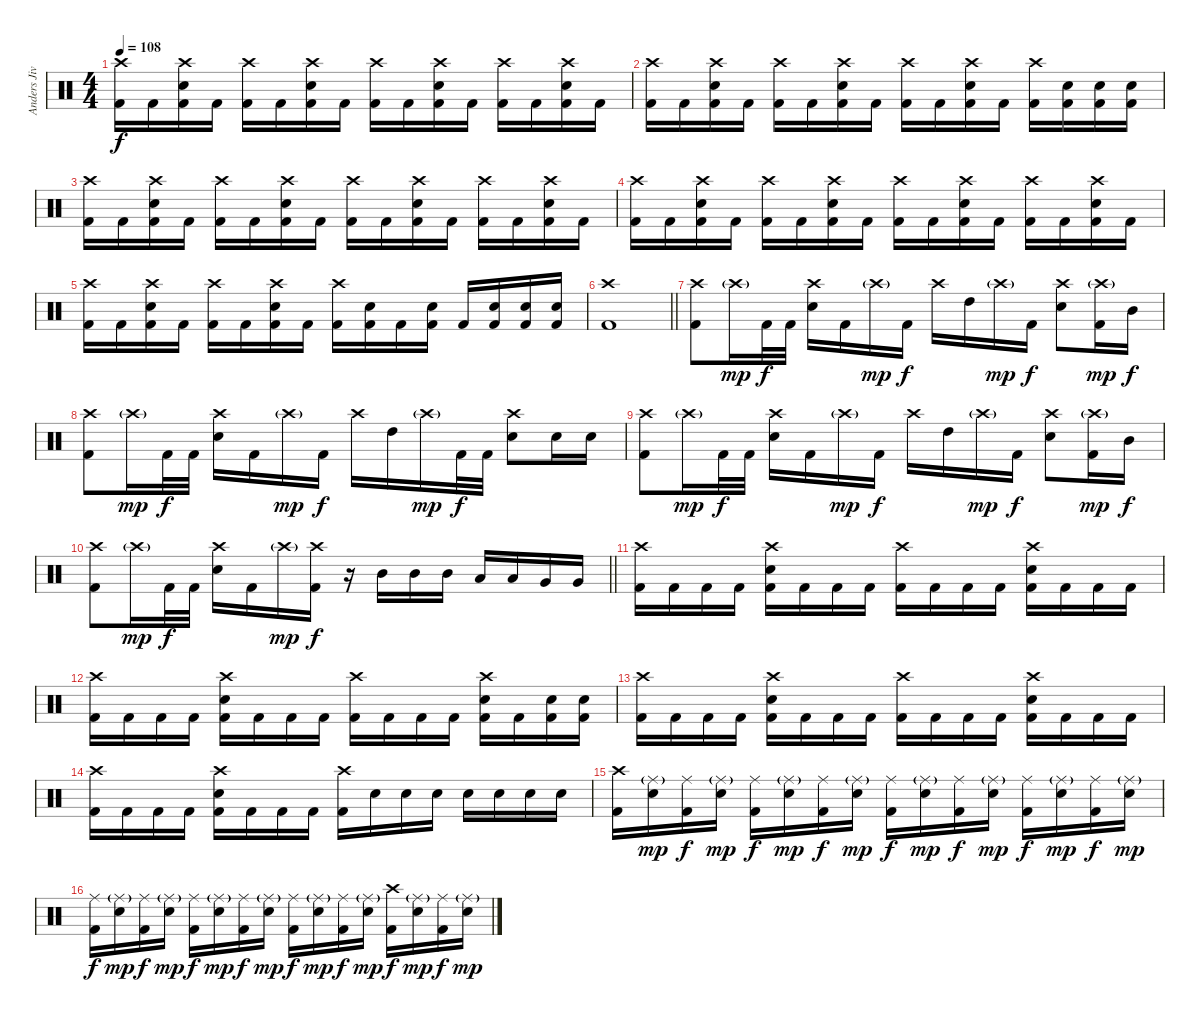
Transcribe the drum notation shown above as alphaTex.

\track ("Anders Jivarp" "Anders Jiv") {instrument percussion}
\staff {score}
\articulation defaults
\ts (4 4)
\tempo 108
\clef neutral
\ks c
("Crash high (hit)" "Kick (hit) 2").16{dy f} "Kick (hit) 2".16 ("Crash high (hit)" "Snare (hit) 2" "Kick (hit) 2").16 "Kick (hit) 2".16 ("Crash high (hit)" "Kick (hit) 2").16 "Kick (hit) 2".16 ("Crash high (hit)" "Snare (hit) 2" "Kick (hit) 2").16 "Kick (hit) 2".16 ("Crash high (hit)" "Kick (hit) 2").16 "Kick (hit) 2".16 ("Crash high (hit)" "Snare (hit) 2" "Kick (hit) 2").16 "Kick (hit) 2".16 ("Crash high (hit)" "Kick (hit) 2").16 "Kick (hit) 2".16 ("Crash high (hit)" "Snare (hit) 2" "Kick (hit) 2").16 "Kick (hit) 2".16 |
("Crash high (hit)" "Kick (hit) 2").16 "Kick (hit) 2".16 ("Crash high (hit)" "Snare (hit) 2" "Kick (hit) 2").16 "Kick (hit) 2".16 ("Crash high (hit)" "Kick (hit) 2").16 "Kick (hit) 2".16 ("Crash high (hit)" "Snare (hit) 2" "Kick (hit) 2").16 "Kick (hit) 2".16 ("Crash high (hit)" "Kick (hit) 2").16 "Kick (hit) 2".16 ("Crash high (hit)" "Snare (hit) 2" "Kick (hit) 2").16 "Kick (hit) 2".16 ("Crash high (hit)" "Kick (hit) 2").16 ("Snare (hit) 2" "Kick (hit) 2").16 ("Snare (hit) 2" "Kick (hit) 2").16 ("Snare (hit) 2" "Kick (hit) 2").16 |
("Crash high (hit)" "Kick (hit) 2").16 "Kick (hit) 2".16 ("Crash high (hit)" "Snare (hit) 2" "Kick (hit) 2").16 "Kick (hit) 2".16 ("Crash high (hit)" "Kick (hit) 2").16 "Kick (hit) 2".16 ("Crash high (hit)" "Snare (hit) 2" "Kick (hit) 2").16 "Kick (hit) 2".16 ("Crash high (hit)" "Kick (hit) 2").16 "Kick (hit) 2".16 ("Crash high (hit)" "Snare (hit) 2" "Kick (hit) 2").16 "Kick (hit) 2".16 ("Crash high (hit)" "Kick (hit) 2").16 "Kick (hit) 2".16 ("Crash high (hit)" "Snare (hit) 2" "Kick (hit) 2").16 "Kick (hit) 2".16 |
("Crash high (hit)" "Kick (hit) 2").16 "Kick (hit) 2".16 ("Crash high (hit)" "Snare (hit) 2" "Kick (hit) 2").16 "Kick (hit) 2".16 ("Crash high (hit)" "Kick (hit) 2").16 "Kick (hit) 2".16 ("Crash high (hit)" "Snare (hit) 2" "Kick (hit) 2").16 "Kick (hit) 2".16 ("Crash high (hit)" "Kick (hit) 2").16 "Kick (hit) 2".16 ("Crash high (hit)" "Snare (hit) 2" "Kick (hit) 2").16 "Kick (hit) 2".16 ("Crash high (hit)" "Kick (hit) 2").16 "Kick (hit) 2".16 ("Crash high (hit)" "Snare (hit) 2" "Kick (hit) 2").16 "Kick (hit) 2".16 |
("Crash high (hit)" "Kick (hit) 2").16 "Kick (hit) 2".16 ("Crash high (hit)" "Snare (hit) 2" "Kick (hit) 2").16 "Kick (hit) 2".16 ("Crash high (hit)" "Kick (hit) 2").16 "Kick (hit) 2".16 ("Crash high (hit)" "Snare (hit) 2" "Kick (hit) 2").16 "Kick (hit) 2".16 ("Crash high (hit)" "Kick (hit) 2").16 ("Snare (hit) 2" "Kick (hit) 2").16 "Kick (hit) 2".16 ("Snare (hit) 2" "Kick (hit) 2").16 "Kick (hit) 2".16 ("Snare (hit) 2" "Kick (hit) 2").16 ("Snare (hit) 2" "Kick (hit) 2").16 ("Snare (hit) 2" "Kick (hit) 2").16 |
\barLineRight lightlight
("Crash high (hit)" "Kick (hit) 2").1 |
\section ("" "")
("Crash high (hit)" "Kick (hit) 2").8 "Crash high (hit)"{g}.16{dy mp} "Kick (hit) 2".32{dy f} "Kick (hit) 2".32 ("Crash high (hit)" "Snare (hit) 2").16 "Kick (hit) 2".16 "Crash high (hit)"{g}.16{dy mp} "Kick (hit) 2".16{dy f} "Crash high (hit)".16 "High Tom (hit)".16 "Crash high (hit)"{g}.16{dy mp} "Kick (hit) 2".16{dy f} ("Crash high (hit)" "Snare (hit) 2").8 ("Crash high (hit)"{g} "Kick (hit) 2").16{dy mp} "Mid Tom (hit)".16{dy f} |
("Crash high (hit)" "Kick (hit) 2").8 "Crash high (hit)"{g}.16{dy mp} "Kick (hit) 2".32{dy f} "Kick (hit) 2".32 ("Crash high (hit)" "Snare (hit) 2").16 "Kick (hit) 2".16 "Crash high (hit)"{g}.16{dy mp} "Kick (hit) 2".16{dy f} "Crash high (hit)".16 "High Tom (hit)".16 "Crash high (hit)"{g}.16{dy mp} "Kick (hit) 2".32{dy f} "Kick (hit) 2".32 ("Crash high (hit)" "Snare (hit) 2").8 "Snare (hit) 2".16 "Snare (hit) 2".16 |
("Crash high (hit)" "Kick (hit) 2").8 "Crash high (hit)"{g}.16{dy mp} "Kick (hit) 2".32{dy f} "Kick (hit) 2".32 ("Crash high (hit)" "Snare (hit) 2").16 "Kick (hit) 2".16 "Crash high (hit)"{g}.16{dy mp} "Kick (hit) 2".16{dy f} "Crash high (hit)".16 "High Tom (hit)".16 "Crash high (hit)"{g}.16{dy mp} "Kick (hit) 2".16{dy f} ("Crash high (hit)" "Snare (hit) 2").8 ("Crash high (hit)"{g} "Kick (hit) 2").16{dy mp} "Mid Tom (hit)".16{dy f} |
\barLineRight lightlight
("Crash high (hit)" "Kick (hit) 2").8 "Crash high (hit)"{g}.16{dy mp} "Kick (hit) 2".32{dy f} "Kick (hit) 2".32 ("Crash high (hit)" "Snare (hit) 2").16 "Kick (hit) 2".16 "Crash high (hit)"{g}.16{dy mp} ("Crash high (hit)" "Kick (hit) 2").16{dy f} r.16 "Mid Tom (hit)".16 "Mid Tom (hit)".16 "Mid Tom (hit)".16 "Low Tom (hit)".16 "Low Tom (hit)".16 "Very Low Tom (hit)".16 "Very Low Tom (hit)".16 |
\section ("" "")
("Crash high (hit)" "Kick (hit) 2").16 "Kick (hit) 2".16 "Kick (hit) 2".16 "Kick (hit) 2".16 ("Crash high (hit)" "Snare (hit) 2" "Kick (hit) 2").16 "Kick (hit) 2".16 "Kick (hit) 2".16 "Kick (hit) 2".16 ("Crash high (hit)" "Kick (hit) 2").16 "Kick (hit) 2".16 "Kick (hit) 2".16 "Kick (hit) 2".16 ("Crash high (hit)" "Snare (hit) 2" "Kick (hit) 2").16 "Kick (hit) 2".16 "Kick (hit) 2".16 "Kick (hit) 2".16 |
("Crash high (hit)" "Kick (hit) 2").16 "Kick (hit) 2".16 "Kick (hit) 2".16 "Kick (hit) 2".16 ("Crash high (hit)" "Snare (hit) 2" "Kick (hit) 2").16 "Kick (hit) 2".16 "Kick (hit) 2".16 "Kick (hit) 2".16 ("Crash high (hit)" "Kick (hit) 2").16 "Kick (hit) 2".16 "Kick (hit) 2".16 "Kick (hit) 2".16 ("Crash high (hit)" "Snare (hit) 2" "Kick (hit) 2").16 "Kick (hit) 2".16 ("Snare (hit) 2" "Kick (hit) 2").16 ("Snare (hit) 2" "Kick (hit) 2").16 |
("Crash high (hit)" "Kick (hit) 2").16 "Kick (hit) 2".16 "Kick (hit) 2".16 "Kick (hit) 2".16 ("Crash high (hit)" "Snare (hit) 2" "Kick (hit) 2").16 "Kick (hit) 2".16 "Kick (hit) 2".16 "Kick (hit) 2".16 ("Crash high (hit)" "Kick (hit) 2").16 "Kick (hit) 2".16 "Kick (hit) 2".16 "Kick (hit) 2".16 ("Crash high (hit)" "Snare (hit) 2" "Kick (hit) 2").16 "Kick (hit) 2".16 "Kick (hit) 2".16 "Kick (hit) 2".16 |
("Crash high (hit)" "Kick (hit) 2").16 "Kick (hit) 2".16 "Kick (hit) 2".16 "Kick (hit) 2".16 ("Crash high (hit)" "Snare (hit) 2" "Kick (hit) 2").16 "Kick (hit) 2".16 "Kick (hit) 2".16 "Kick (hit) 2".16 ("Crash high (hit)" "Kick (hit) 2").16 "Snare (hit) 2".16 "Snare (hit) 2".16 "Snare (hit) 2".16 "Snare (hit) 2".16 "Snare (hit) 2".16 "Snare (hit) 2".16 "Snare (hit) 2".16 |
("Crash high (hit)" "Kick (hit) 2").16 ("Ride (middle)"{g} "Snare (hit) 2").16{dy mp} ("Ride (middle)" "Kick (hit) 2").16{dy f} ("Ride (middle)"{g} "Snare (hit) 2").16{dy mp} ("Ride (middle)" "Kick (hit) 2").16{dy f} ("Ride (middle)"{g} "Snare (hit) 2").16{dy mp} ("Ride (middle)" "Kick (hit) 2").16{dy f} ("Ride (middle)"{g} "Snare (hit) 2").16{dy mp} ("Ride (middle)" "Kick (hit) 2").16{dy f} ("Ride (middle)"{g} "Snare (hit) 2").16{dy mp} ("Ride (middle)" "Kick (hit) 2").16{dy f} ("Ride (middle)"{g} "Snare (hit) 2").16{dy mp} ("Ride (middle)" "Kick (hit) 2").16{dy f} ("Ride (middle)"{g} "Snare (hit) 2").16{dy mp} ("Ride (middle)" "Kick (hit) 2").16{dy f} ("Ride (middle)"{g} "Snare (hit) 2").16{dy mp} |
("Ride (middle)" "Kick (hit) 2").16{dy f} ("Ride (middle)"{g} "Snare (hit) 2").16{dy mp} ("Ride (middle)" "Kick (hit) 2").16{dy f} ("Ride (middle)"{g} "Snare (hit) 2").16{dy mp} ("Ride (middle)" "Kick (hit) 2").16{dy f} ("Ride (middle)"{g} "Snare (hit) 2").16{dy mp} ("Ride (middle)" "Kick (hit) 2").16{dy f} ("Ride (middle)"{g} "Snare (hit) 2").16{dy mp} ("Ride (middle)" "Kick (hit) 2").16{dy f} ("Ride (middle)"{g} "Snare (hit) 2").16{dy mp} ("Ride (middle)" "Kick (hit) 2").16{dy f} ("Ride (middle)"{g} "Snare (hit) 2").16{dy mp} ("Crash high (hit)" "Kick (hit) 2").16{dy f} ("Ride (middle)"{g} "Snare (hit) 2").16{dy mp} ("Ride (middle)" "Kick (hit) 2").16{dy f} ("Ride (middle)"{g} "Snare (hit) 2").16{dy mp}
